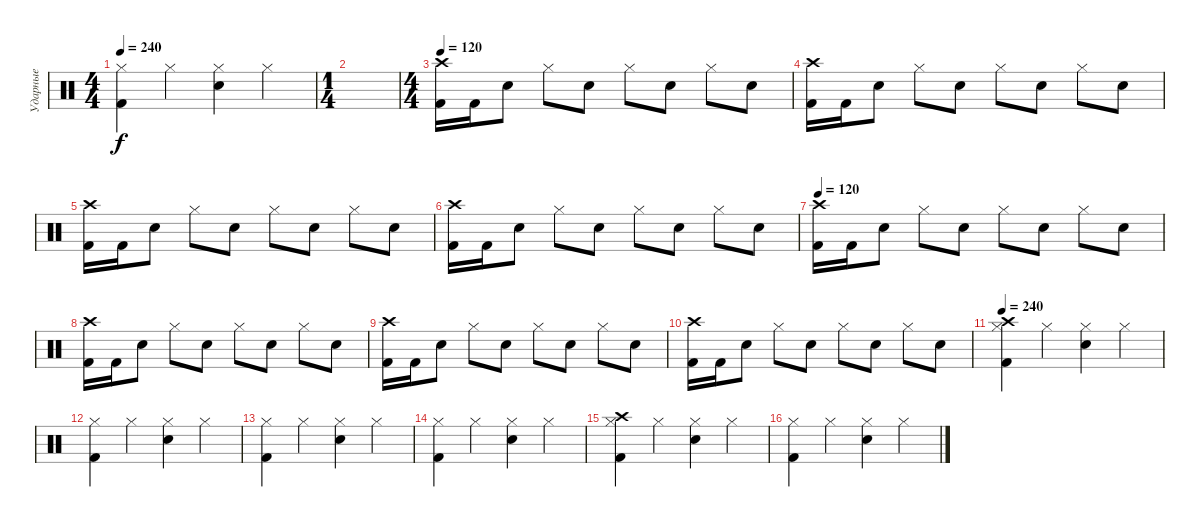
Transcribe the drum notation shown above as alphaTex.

\track ("Ударные" "Ударные") {instrument percussion}
\staff {score}
\articulation defaults
\ts (4 4)
\tempo 240
\clef neutral
\ks c
("Kick (hit) 2" "Hi-Hat (closed)").4{dy f} "Hi-Hat (closed)".4 ("Electric Snare (hit)" "Hi-Hat (closed)").4 "Hi-Hat (closed)".4 |
\ts (1 4)
|
\ts (4 4)
\tempo 120
("Kick (hit) 2" "Crash high (hit)").16 "Kick (hit) 2".16 "Electric Snare (hit)".8 "Hi-Hat (closed)".8 "Electric Snare (hit)".8 "Hi-Hat (closed)".8 "Electric Snare (hit)".8 "Hi-Hat (closed)".8 "Electric Snare (hit)".8 |
("Kick (hit) 2" "Crash high (hit)").16 "Kick (hit) 2".16 "Electric Snare (hit)".8 "Hi-Hat (closed)".8 "Electric Snare (hit)".8 "Hi-Hat (closed)".8 "Electric Snare (hit)".8 "Hi-Hat (closed)".8 "Electric Snare (hit)".8 |
("Kick (hit) 2" "Crash high (hit)").16 "Kick (hit) 2".16 "Electric Snare (hit)".8 "Hi-Hat (closed)".8 "Electric Snare (hit)".8 "Hi-Hat (closed)".8 "Electric Snare (hit)".8 "Hi-Hat (closed)".8 "Electric Snare (hit)".8 |
("Kick (hit) 2" "Crash high (hit)").16 "Kick (hit) 2".16 "Electric Snare (hit)".8 "Hi-Hat (closed)".8 "Electric Snare (hit)".8 "Hi-Hat (closed)".8 "Electric Snare (hit)".8 "Hi-Hat (closed)".8 "Electric Snare (hit)".8 |
\tempo 120
("Kick (hit) 2" "Crash high (hit)").16 "Kick (hit) 2".16 "Electric Snare (hit)".8 "Hi-Hat (closed)".8 "Electric Snare (hit)".8 "Hi-Hat (closed)".8 "Electric Snare (hit)".8 "Hi-Hat (closed)".8 "Electric Snare (hit)".8 |
("Kick (hit) 2" "Crash high (hit)").16 "Kick (hit) 2".16 "Electric Snare (hit)".8 "Hi-Hat (closed)".8 "Electric Snare (hit)".8 "Hi-Hat (closed)".8 "Electric Snare (hit)".8 "Hi-Hat (closed)".8 "Electric Snare (hit)".8 |
("Kick (hit) 2" "Crash high (hit)").16 "Kick (hit) 2".16 "Electric Snare (hit)".8 "Hi-Hat (closed)".8 "Electric Snare (hit)".8 "Hi-Hat (closed)".8 "Electric Snare (hit)".8 "Hi-Hat (closed)".8 "Electric Snare (hit)".8 |
("Kick (hit) 2" "Crash high (hit)").16 "Kick (hit) 2".16 "Electric Snare (hit)".8 "Hi-Hat (closed)".8 "Electric Snare (hit)".8 "Hi-Hat (closed)".8 "Electric Snare (hit)".8 "Hi-Hat (closed)".8 "Electric Snare (hit)".8 |
\tempo 240
("Kick (hit) 2" "Hi-Hat (closed)" "Crash high (hit)").4 "Hi-Hat (closed)".4 ("Electric Snare (hit)" "Hi-Hat (closed)").4 "Hi-Hat (closed)".4 |
("Kick (hit) 2" "Hi-Hat (closed)").4 "Hi-Hat (closed)".4 ("Electric Snare (hit)" "Hi-Hat (closed)").4 "Hi-Hat (closed)".4 |
("Kick (hit) 2" "Hi-Hat (closed)").4 "Hi-Hat (closed)".4 ("Electric Snare (hit)" "Hi-Hat (closed)").4 "Hi-Hat (closed)".4 |
("Kick (hit) 2" "Hi-Hat (closed)").4 "Hi-Hat (closed)".4 ("Electric Snare (hit)" "Hi-Hat (closed)").4 "Hi-Hat (closed)".4 |
("Kick (hit) 2" "Hi-Hat (closed)" "Crash high (hit)").4 "Hi-Hat (closed)".4 ("Electric Snare (hit)" "Hi-Hat (closed)").4 "Hi-Hat (closed)".4 |
("Kick (hit) 2" "Hi-Hat (closed)").4 "Hi-Hat (closed)".4 ("Electric Snare (hit)" "Hi-Hat (closed)").4 "Hi-Hat (closed)".4
